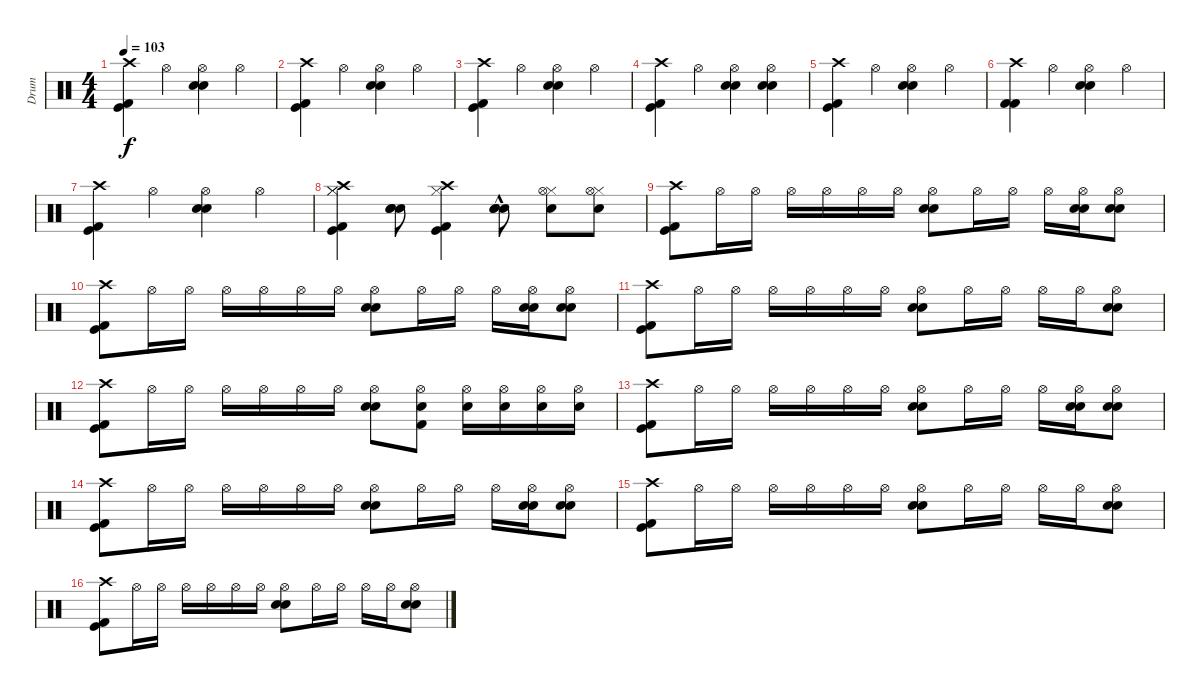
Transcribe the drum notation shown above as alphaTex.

\track ("Drum" "Drum") {instrument percussion}
\staff {score}
\articulation defaults
\ts (4 4)
\tempo 103
\clef neutral
\ks c
("Kick (hit)" "Kick (hit) 2" "Crash high (hit)").4{dy f} "Hi-Hat (open)".4 ("Hi-Hat (open)" "Electric Snare (hit)" "Snare (hit) 2").4 "Hi-Hat (open)".4 |
("Kick (hit)" "Kick (hit) 2" "Crash high (hit)").4 "Hi-Hat (open)".4 ("Hi-Hat (open)" "Electric Snare (hit)" "Snare (hit) 2").4 "Hi-Hat (open)".4 |
("Kick (hit)" "Kick (hit) 2" "Crash high (hit)").4 "Hi-Hat (open)".4 ("Hi-Hat (open)" "Electric Snare (hit)" "Snare (hit) 2").4 "Hi-Hat (open)".4 |
("Kick (hit)" "Kick (hit) 2" "Crash high (hit)").4 "Hi-Hat (open)".4 ("Hi-Hat (open)" "Electric Snare (hit)" "Snare (hit) 2").4 ("Hi-Hat (open)" "Electric Snare (hit)" "Snare (hit) 2").4 |
("Kick (hit)" "Kick (hit) 2" "Crash high (hit)").4 "Hi-Hat (open)".4 ("Hi-Hat (open)" "Electric Snare (hit)" "Snare (hit) 2").4 "Hi-Hat (open)".4 |
("Kick (hit) 2" "Kick (hit) 2" "Crash high (hit)").4 "Hi-Hat (open)".4 ("Hi-Hat (open)" "Electric Snare (hit)" "Snare (hit) 2").4 "Hi-Hat (open)".4 |
("Kick (hit)" "Kick (hit) 2" "Crash high (hit)").4 "Hi-Hat (open)".4 ("Hi-Hat (open)" "Electric Snare (hit)" "Snare (hit) 2").4 "Hi-Hat (open)".4 |
("Hi-Hat (closed)" "Kick (hit)" "Kick (hit) 2" "Crash high (hit)" "Hi-Hat (closed)").4 ("Snare (hit) 2" "Electric Snare (hit)" "Electric Snare (hit)").8 ("Kick (hit)" "Kick (hit) 2" "Crash high (hit)" "Hi-Hat (closed)").4 ("Snare (hit) 2"{hac} "Electric Snare (hit)" "Electric Snare (hit)").8 ("Snare (hit) 2" "Hi-Hat (closed)" "Hi-Hat (open)").8 ("Snare (hit) 2" "Hi-Hat (closed)" "Hi-Hat (open)").8 |
("Kick (hit)" "Kick (hit) 2" "Crash high (hit)").8 "Hi-Hat (open)".16 "Hi-Hat (open)".16 "Hi-Hat (open)".16 "Hi-Hat (open)".16 "Hi-Hat (open)".16 "Hi-Hat (open)".16 ("Hi-Hat (open)" "Electric Snare (hit)" "Snare (hit) 2").8 "Hi-Hat (open)".16 "Hi-Hat (open)".16 "Hi-Hat (open)".16 ("Hi-Hat (open)" "Electric Snare (hit)" "Snare (hit) 2").16 ("Hi-Hat (open)" "Electric Snare (hit)" "Snare (hit) 2").8 |
("Kick (hit)" "Kick (hit) 2" "Crash high (hit)").8 "Hi-Hat (open)".16 "Hi-Hat (open)".16 "Hi-Hat (open)".16 "Hi-Hat (open)".16 "Hi-Hat (open)".16 "Hi-Hat (open)".16 ("Hi-Hat (open)" "Electric Snare (hit)" "Snare (hit) 2").8 "Hi-Hat (open)".16 "Hi-Hat (open)".16 "Hi-Hat (open)".16 ("Hi-Hat (open)" "Electric Snare (hit)" "Snare (hit) 2").16 ("Hi-Hat (open)" "Electric Snare (hit)" "Snare (hit) 2").8 |
("Kick (hit)" "Kick (hit) 2" "Crash high (hit)").8 "Hi-Hat (open)".16 "Hi-Hat (open)".16 "Hi-Hat (open)".16 "Hi-Hat (open)".16 "Hi-Hat (open)".16 "Hi-Hat (open)".16 ("Hi-Hat (open)" "Electric Snare (hit)" "Snare (hit) 2").8 "Hi-Hat (open)".16 "Hi-Hat (open)".16 "Hi-Hat (open)".16 "Hi-Hat (open)".16 ("Hi-Hat (open)" "Electric Snare (hit)" "Snare (hit) 2").8 |
("Kick (hit)" "Kick (hit) 2" "Crash high (hit)").8 "Hi-Hat (open)".16 "Hi-Hat (open)".16 "Hi-Hat (open)".16 "Hi-Hat (open)".16 "Hi-Hat (open)".16 "Hi-Hat (open)".16 ("Hi-Hat (open)" "Electric Snare (hit)" "Snare (hit) 2").8 ("Hi-Hat (open)" "Kick (hit) 2" "Snare (hit) 2").8 ("Hi-Hat (open)" "Snare (hit) 2").16 ("Hi-Hat (open)" "Snare (hit) 2").16 ("Hi-Hat (open)" "Snare (hit) 2").16 ("Hi-Hat (open)" "Snare (hit) 2").16 |
("Kick (hit)" "Kick (hit) 2" "Crash high (hit)").8 "Hi-Hat (open)".16 "Hi-Hat (open)".16 "Hi-Hat (open)".16 "Hi-Hat (open)".16 "Hi-Hat (open)".16 "Hi-Hat (open)".16 ("Hi-Hat (open)" "Electric Snare (hit)" "Snare (hit) 2").8 "Hi-Hat (open)".16 "Hi-Hat (open)".16 "Hi-Hat (open)".16 ("Hi-Hat (open)" "Electric Snare (hit)" "Snare (hit) 2").16 ("Hi-Hat (open)" "Electric Snare (hit)" "Snare (hit) 2").8 |
("Kick (hit)" "Kick (hit) 2" "Crash high (hit)").8 "Hi-Hat (open)".16 "Hi-Hat (open)".16 "Hi-Hat (open)".16 "Hi-Hat (open)".16 "Hi-Hat (open)".16 "Hi-Hat (open)".16 ("Hi-Hat (open)" "Electric Snare (hit)" "Snare (hit) 2").8 "Hi-Hat (open)".16 "Hi-Hat (open)".16 "Hi-Hat (open)".16 ("Hi-Hat (open)" "Electric Snare (hit)" "Snare (hit) 2").16 ("Hi-Hat (open)" "Electric Snare (hit)" "Snare (hit) 2").8 |
("Kick (hit)" "Kick (hit) 2" "Crash high (hit)").8 "Hi-Hat (open)".16 "Hi-Hat (open)".16 "Hi-Hat (open)".16 "Hi-Hat (open)".16 "Hi-Hat (open)".16 "Hi-Hat (open)".16 ("Hi-Hat (open)" "Electric Snare (hit)" "Snare (hit) 2").8 "Hi-Hat (open)".16 "Hi-Hat (open)".16 "Hi-Hat (open)".16 "Hi-Hat (open)".16 ("Hi-Hat (open)" "Electric Snare (hit)" "Snare (hit) 2").8 |
("Kick (hit)" "Kick (hit) 2" "Crash high (hit)").8 "Hi-Hat (open)".16 "Hi-Hat (open)".16 "Hi-Hat (open)".16 "Hi-Hat (open)".16 "Hi-Hat (open)".16 "Hi-Hat (open)".16 ("Hi-Hat (open)" "Electric Snare (hit)" "Snare (hit) 2").8 "Hi-Hat (open)".16 "Hi-Hat (open)".16 "Hi-Hat (open)".16 "Hi-Hat (open)".16 ("Hi-Hat (open)" "Electric Snare (hit)" "Snare (hit) 2").8
